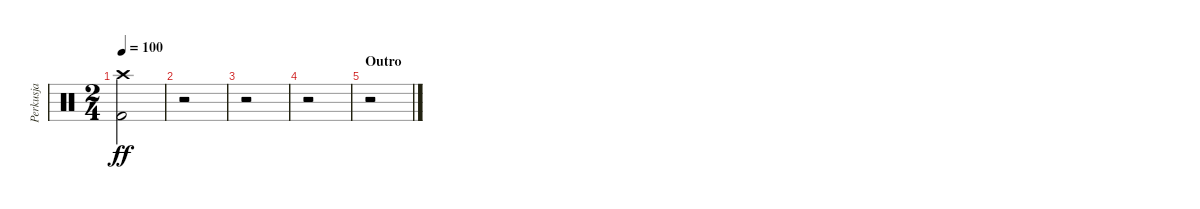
\track ("Perkusja" "Perkusja") {instrument percussion}
\staff {score}
\articulation defaults
\ts (2 4)
\tempo 100
\clef neutral
\ks c
("Kick (hit) 2" "Crash high (hit)").2{dy ff} |
r.2 |
r.2 |
r.2 |
\section ("" "Outro")
r.2
